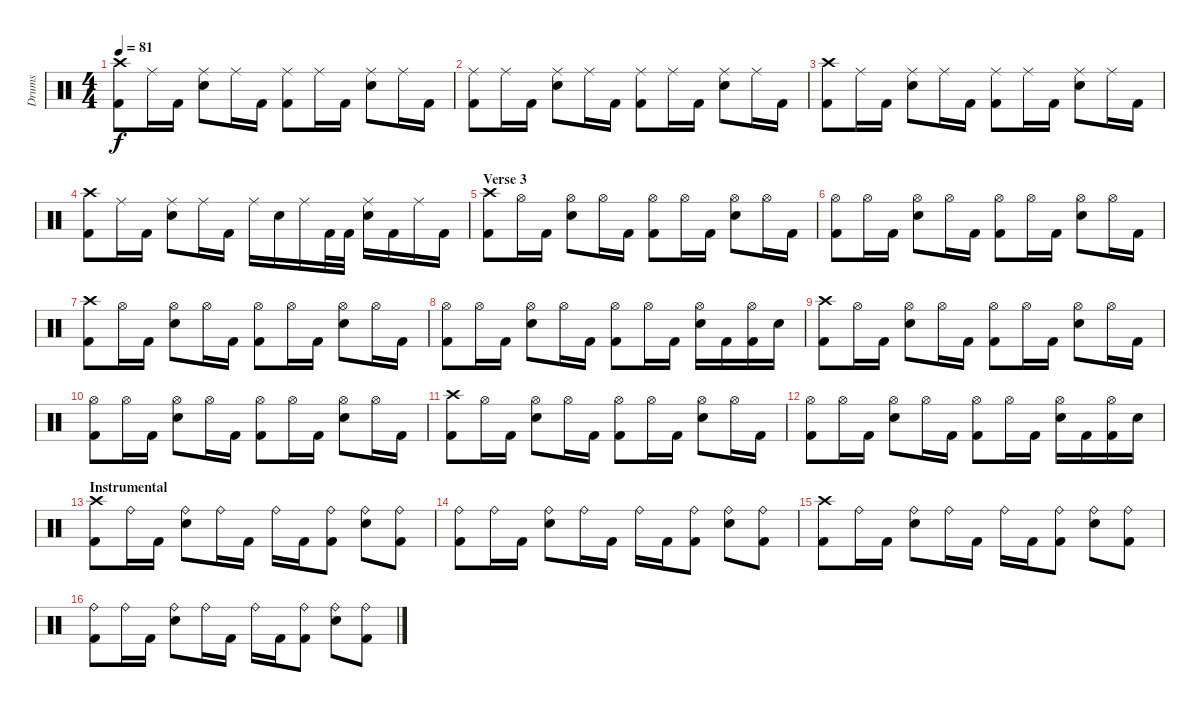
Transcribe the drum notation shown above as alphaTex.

\track ("Drums" "Drums") {instrument percussion}
\staff {score}
\articulation defaults
\ts (4 4)
\tempo 81
\clef neutral
\ks c
("Crash high (hit)" "Kick (hit) 2").8{dy f} "Ride (middle)".16 "Kick (hit) 2".16 ("Ride (middle)" "Snare (hit) 2").8 "Ride (middle)".16 "Kick (hit) 2".16 ("Ride (middle)" "Kick (hit) 2").8 "Ride (middle)".16 "Kick (hit) 2".16 ("Ride (middle)" "Snare (hit) 2").8 "Ride (middle)".16 "Kick (hit) 2".16 |
("Ride (middle)" "Kick (hit) 2").8 "Ride (middle)".16 "Kick (hit) 2".16 ("Ride (middle)" "Snare (hit) 2").8 "Ride (middle)".16 "Kick (hit) 2".16 ("Ride (middle)" "Kick (hit) 2").8 "Ride (middle)".16 "Kick (hit) 2".16 ("Ride (middle)" "Snare (hit) 2").8 "Ride (middle)".16 "Kick (hit) 2".16 |
("Crash high (hit)" "Kick (hit) 2").8 "Ride (middle)".16 "Kick (hit) 2".16 ("Ride (middle)" "Snare (hit) 2").8 "Ride (middle)".16 "Kick (hit) 2".16 ("Ride (middle)" "Kick (hit) 2").8 "Ride (middle)".16 "Kick (hit) 2".16 ("Ride (middle)" "Snare (hit) 2").8 "Ride (middle)".16 "Kick (hit) 2".16 |
("Crash high (hit)" "Kick (hit) 2").8 "Ride (middle)".16 "Kick (hit) 2".16 ("Ride (middle)" "Snare (hit) 2").8 "Ride (middle)".16 "Kick (hit) 2".16 "Ride (middle)".16 "Snare (hit) 2".16 "Ride (middle)".16 "Kick (hit) 2".32 "Kick (hit) 2".32 ("Ride (middle)" "Snare (hit) 2").16 "Kick (hit) 2".16 "Ride (middle)".16 "Kick (hit) 2".16 |
\section ("" "Verse 3")
("Crash high (hit)" "Kick (hit) 2").8 "Hi-Hat (open)".16 "Kick (hit) 2".16 ("Hi-Hat (open)" "Snare (hit) 2").8 "Hi-Hat (open)".16 "Kick (hit) 2".16 ("Hi-Hat (open)" "Kick (hit) 2").8 "Hi-Hat (open)".16 "Kick (hit) 2".16 ("Hi-Hat (open)" "Snare (hit) 2").8 "Hi-Hat (open)".16 "Kick (hit) 2".16 |
("Hi-Hat (open)" "Kick (hit) 2").8 "Hi-Hat (open)".16 "Kick (hit) 2".16 ("Hi-Hat (open)" "Snare (hit) 2").8 "Hi-Hat (open)".16 "Kick (hit) 2".16 ("Hi-Hat (open)" "Kick (hit) 2").8 "Hi-Hat (open)".16 "Kick (hit) 2".16 ("Hi-Hat (open)" "Snare (hit) 2").8 "Hi-Hat (open)".16 "Kick (hit) 2".16 |
("Crash high (hit)" "Kick (hit) 2").8 "Hi-Hat (open)".16 "Kick (hit) 2".16 ("Hi-Hat (open)" "Snare (hit) 2").8 "Hi-Hat (open)".16 "Kick (hit) 2".16 ("Hi-Hat (open)" "Kick (hit) 2").8 "Hi-Hat (open)".16 "Kick (hit) 2".16 ("Hi-Hat (open)" "Snare (hit) 2").8 "Hi-Hat (open)".16 "Kick (hit) 2".16 |
("Hi-Hat (open)" "Kick (hit) 2").8 "Hi-Hat (open)".16 "Kick (hit) 2".16 ("Hi-Hat (open)" "Snare (hit) 2").8 "Hi-Hat (open)".16 "Kick (hit) 2".16 ("Hi-Hat (open)" "Kick (hit) 2").8 "Hi-Hat (open)".16 "Kick (hit) 2".16 ("Hi-Hat (open)" "Snare (hit) 2").16 "Kick (hit) 2".16 ("Hi-Hat (open)" "Kick (hit) 2").16 "Snare (hit) 2".16 |
("Crash high (hit)" "Kick (hit) 2").8 "Hi-Hat (open)".16 "Kick (hit) 2".16 ("Hi-Hat (open)" "Snare (hit) 2").8 "Hi-Hat (open)".16 "Kick (hit) 2".16 ("Hi-Hat (open)" "Kick (hit) 2").8 "Hi-Hat (open)".16 "Kick (hit) 2".16 ("Hi-Hat (open)" "Snare (hit) 2").8 "Hi-Hat (open)".16 "Kick (hit) 2".16 |
("Hi-Hat (open)" "Kick (hit) 2").8 "Hi-Hat (open)".16 "Kick (hit) 2".16 ("Hi-Hat (open)" "Snare (hit) 2").8 "Hi-Hat (open)".16 "Kick (hit) 2".16 ("Hi-Hat (open)" "Kick (hit) 2").8 "Hi-Hat (open)".16 "Kick (hit) 2".16 ("Hi-Hat (open)" "Snare (hit) 2").8 "Hi-Hat (open)".16 "Kick (hit) 2".16 |
("Crash high (hit)" "Kick (hit) 2").8 "Hi-Hat (open)".16 "Kick (hit) 2".16 ("Hi-Hat (open)" "Snare (hit) 2").8 "Hi-Hat (open)".16 "Kick (hit) 2".16 ("Hi-Hat (open)" "Kick (hit) 2").8 "Hi-Hat (open)".16 "Kick (hit) 2".16 ("Hi-Hat (open)" "Snare (hit) 2").8 "Hi-Hat (open)".16 "Kick (hit) 2".16 |
("Hi-Hat (open)" "Kick (hit) 2").8 "Hi-Hat (open)".16 "Kick (hit) 2".16 ("Hi-Hat (open)" "Snare (hit) 2").8 "Hi-Hat (open)".16 "Kick (hit) 2".16 ("Hi-Hat (open)" "Kick (hit) 2").8 "Hi-Hat (open)".16 "Kick (hit) 2".16 ("Hi-Hat (open)" "Snare (hit) 2").16 "Kick (hit) 2".16 ("Hi-Hat (open)" "Kick (hit) 2").16 "Snare (hit) 2".16 |
\section ("" "Instrumental")
("Crash high (hit)" "Kick (hit) 2").8 "Ride (bell)".16 "Kick (hit) 2".16 ("Ride (bell)" "Snare (hit) 2").8 "Ride (bell)".16 "Kick (hit) 2".16 "Ride (bell)".16 "Kick (hit) 2".16 ("Ride (bell)" "Kick (hit) 2").8 ("Ride (bell)" "Snare (hit) 2").8 ("Ride (bell)" "Kick (hit) 2").8 |
("Ride (bell)" "Kick (hit) 2").8 "Ride (bell)".16 "Kick (hit) 2".16 ("Ride (bell)" "Snare (hit) 2").8 "Ride (bell)".16 "Kick (hit) 2".16 "Ride (bell)".16 "Kick (hit) 2".16 ("Ride (bell)" "Kick (hit) 2").8 ("Ride (bell)" "Snare (hit) 2").8 ("Ride (bell)" "Kick (hit) 2").8 |
("Crash high (hit)" "Kick (hit) 2").8 "Ride (bell)".16 "Kick (hit) 2".16 ("Ride (bell)" "Snare (hit) 2").8 "Ride (bell)".16 "Kick (hit) 2".16 "Ride (bell)".16 "Kick (hit) 2".16 ("Ride (bell)" "Kick (hit) 2").8 ("Ride (bell)" "Snare (hit) 2").8 ("Ride (bell)" "Kick (hit) 2").8 |
("Ride (bell)" "Kick (hit) 2").8 "Ride (bell)".16 "Kick (hit) 2".16 ("Ride (bell)" "Snare (hit) 2").8 "Ride (bell)".16 "Kick (hit) 2".16 "Ride (bell)".16 "Kick (hit) 2".16 ("Ride (bell)" "Kick (hit) 2").8 ("Ride (bell)" "Snare (hit) 2").8 ("Ride (bell)" "Kick (hit) 2").8
